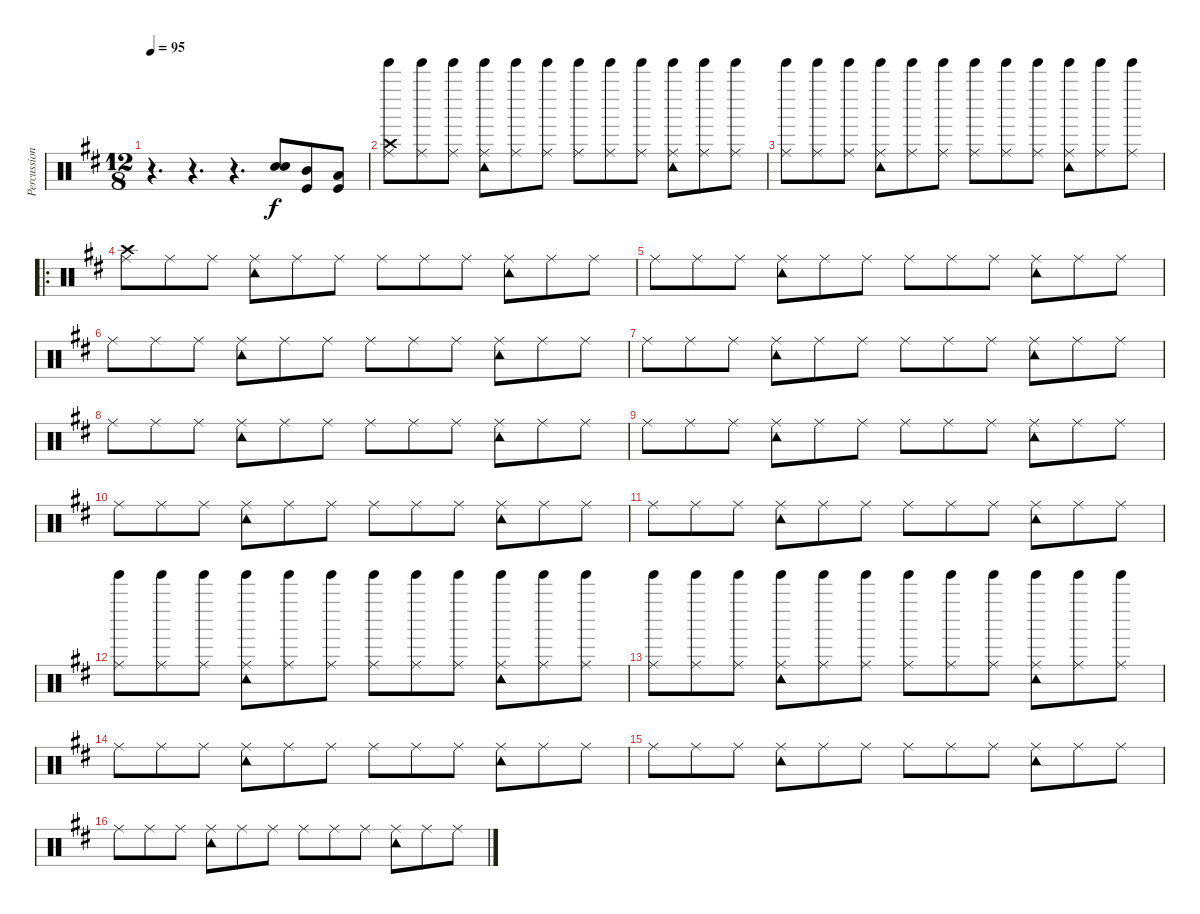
\track ("Percussion" "Percussion") {instrument percussion}
\staff {score}
\articulation defaults
\ts (12 8)
\tempo 95
\clef neutral
\ks d
r.4{d dy f} r.4{d} r.4{d} ("Electric Snare (hit)" "Electric Snare (hit)").8 ("Mid Tom (hit)" "Kick (hit)").8 ("Low Tom (hit)" "Kick (hit)").8 |
("Ride (middle)" "Tinkle Bell (hit)" "Crash high (hit)").8 ("Ride (middle)" "Tinkle Bell (hit)").8 ("Ride (middle)" "Tinkle Bell (hit)").8 ("Ride (middle)" "Tinkle Bell (hit)" "Tambourine (hit)").8 ("Ride (middle)" "Tinkle Bell (hit)").8 ("Ride (middle)" "Tinkle Bell (hit)").8 ("Ride (middle)" "Tinkle Bell (hit)").8 ("Ride (middle)" "Tinkle Bell (hit)").8 ("Ride (middle)" "Tinkle Bell (hit)").8 ("Ride (middle)" "Tinkle Bell (hit)" "Tambourine (hit)").8 ("Ride (middle)" "Tinkle Bell (hit)").8 ("Ride (middle)" "Tinkle Bell (hit)").8 |
("Ride (middle)" "Tinkle Bell (hit)").8 ("Ride (middle)" "Tinkle Bell (hit)").8 ("Ride (middle)" "Tinkle Bell (hit)").8 ("Ride (middle)" "Tinkle Bell (hit)" "Tambourine (hit)").8 ("Ride (middle)" "Tinkle Bell (hit)").8 ("Ride (middle)" "Tinkle Bell (hit)").8 ("Ride (middle)" "Tinkle Bell (hit)").8 ("Ride (middle)" "Tinkle Bell (hit)").8 ("Ride (middle)" "Tinkle Bell (hit)").8 ("Ride (middle)" "Tinkle Bell (hit)" "Tambourine (hit)").8 ("Ride (middle)" "Tinkle Bell (hit)").8 ("Ride (middle)" "Tinkle Bell (hit)").8 |
\ro
("Ride (middle)" "Crash high (hit)").8 "Ride (middle)".8 "Ride (middle)".8 ("Ride (middle)" "Tambourine (hit)").8 "Ride (middle)".8 "Ride (middle)".8 "Ride (middle)".8 "Ride (middle)".8 "Ride (middle)".8 ("Ride (middle)" "Tambourine (hit)").8 "Ride (middle)".8 "Ride (middle)".8 |
"Ride (middle)".8 "Ride (middle)".8 "Ride (middle)".8 ("Ride (middle)" "Tambourine (hit)").8 "Ride (middle)".8 "Ride (middle)".8 "Ride (middle)".8 "Ride (middle)".8 "Ride (middle)".8 ("Ride (middle)" "Tambourine (hit)").8 "Ride (middle)".8 "Ride (middle)".8 |
"Ride (middle)".8 "Ride (middle)".8 "Ride (middle)".8 ("Ride (middle)" "Tambourine (hit)").8 "Ride (middle)".8 "Ride (middle)".8 "Ride (middle)".8 "Ride (middle)".8 "Ride (middle)".8 ("Ride (middle)" "Tambourine (hit)").8 "Ride (middle)".8 "Ride (middle)".8 |
"Ride (middle)".8 "Ride (middle)".8 "Ride (middle)".8 ("Ride (middle)" "Tambourine (hit)").8 "Ride (middle)".8 "Ride (middle)".8 "Ride (middle)".8 "Ride (middle)".8 "Ride (middle)".8 ("Ride (middle)" "Tambourine (hit)").8 "Ride (middle)".8 "Ride (middle)".8 |
"Ride (middle)".8 "Ride (middle)".8 "Ride (middle)".8 ("Ride (middle)" "Tambourine (hit)").8 "Ride (middle)".8 "Ride (middle)".8 "Ride (middle)".8 "Ride (middle)".8 "Ride (middle)".8 ("Ride (middle)" "Tambourine (hit)").8 "Ride (middle)".8 "Ride (middle)".8 |
"Ride (middle)".8 "Ride (middle)".8 "Ride (middle)".8 ("Ride (middle)" "Tambourine (hit)").8 "Ride (middle)".8 "Ride (middle)".8 "Ride (middle)".8 "Ride (middle)".8 "Ride (middle)".8 ("Ride (middle)" "Tambourine (hit)").8 "Ride (middle)".8 "Ride (middle)".8 |
"Ride (middle)".8 "Ride (middle)".8 "Ride (middle)".8 ("Ride (middle)" "Tambourine (hit)").8 "Ride (middle)".8 "Ride (middle)".8 "Ride (middle)".8 "Ride (middle)".8 "Ride (middle)".8 ("Ride (middle)" "Tambourine (hit)").8 "Ride (middle)".8 "Ride (middle)".8 |
"Ride (middle)".8 "Ride (middle)".8 "Ride (middle)".8 ("Ride (middle)" "Tambourine (hit)").8 "Ride (middle)".8 "Ride (middle)".8 "Ride (middle)".8 "Ride (middle)".8 "Ride (middle)".8 ("Ride (middle)" "Tambourine (hit)").8 "Ride (middle)".8 "Ride (middle)".8 |
("Ride (middle)" "Tinkle Bell (hit)").8 ("Ride (middle)" "Tinkle Bell (hit)").8 ("Ride (middle)" "Tinkle Bell (hit)").8 ("Ride (middle)" "Tinkle Bell (hit)" "Tambourine (hit)").8 ("Ride (middle)" "Tinkle Bell (hit)").8 ("Ride (middle)" "Tinkle Bell (hit)").8 ("Ride (middle)" "Tinkle Bell (hit)").8 ("Ride (middle)" "Tinkle Bell (hit)").8 ("Ride (middle)" "Tinkle Bell (hit)").8 ("Ride (middle)" "Tinkle Bell (hit)" "Tambourine (hit)").8 ("Ride (middle)" "Tinkle Bell (hit)").8 ("Ride (middle)" "Tinkle Bell (hit)").8 |
("Ride (middle)" "Tinkle Bell (hit)").8 ("Ride (middle)" "Tinkle Bell (hit)").8 ("Ride (middle)" "Tinkle Bell (hit)").8 ("Ride (middle)" "Tinkle Bell (hit)" "Tambourine (hit)").8 ("Ride (middle)" "Tinkle Bell (hit)").8 ("Ride (middle)" "Tinkle Bell (hit)").8 ("Ride (middle)" "Tinkle Bell (hit)").8 ("Ride (middle)" "Tinkle Bell (hit)").8 ("Ride (middle)" "Tinkle Bell (hit)").8 ("Ride (middle)" "Tinkle Bell (hit)" "Tambourine (hit)").8 ("Ride (middle)" "Tinkle Bell (hit)").8 ("Ride (middle)" "Tinkle Bell (hit)").8 |
"Ride (middle)".8 "Ride (middle)".8 "Ride (middle)".8 ("Ride (middle)" "Tambourine (hit)").8 "Ride (middle)".8 "Ride (middle)".8 "Ride (middle)".8 "Ride (middle)".8 "Ride (middle)".8 ("Ride (middle)" "Tambourine (hit)").8 "Ride (middle)".8 "Ride (middle)".8 |
"Ride (middle)".8 "Ride (middle)".8 "Ride (middle)".8 ("Ride (middle)" "Tambourine (hit)").8 "Ride (middle)".8 "Ride (middle)".8 "Ride (middle)".8 "Ride (middle)".8 "Ride (middle)".8 ("Ride (middle)" "Tambourine (hit)").8 "Ride (middle)".8 "Ride (middle)".8 |
"Ride (middle)".8 "Ride (middle)".8 "Ride (middle)".8 ("Ride (middle)" "Tambourine (hit)").8 "Ride (middle)".8 "Ride (middle)".8 "Ride (middle)".8 "Ride (middle)".8 "Ride (middle)".8 ("Ride (middle)" "Tambourine (hit)").8 "Ride (middle)".8 "Ride (middle)".8
